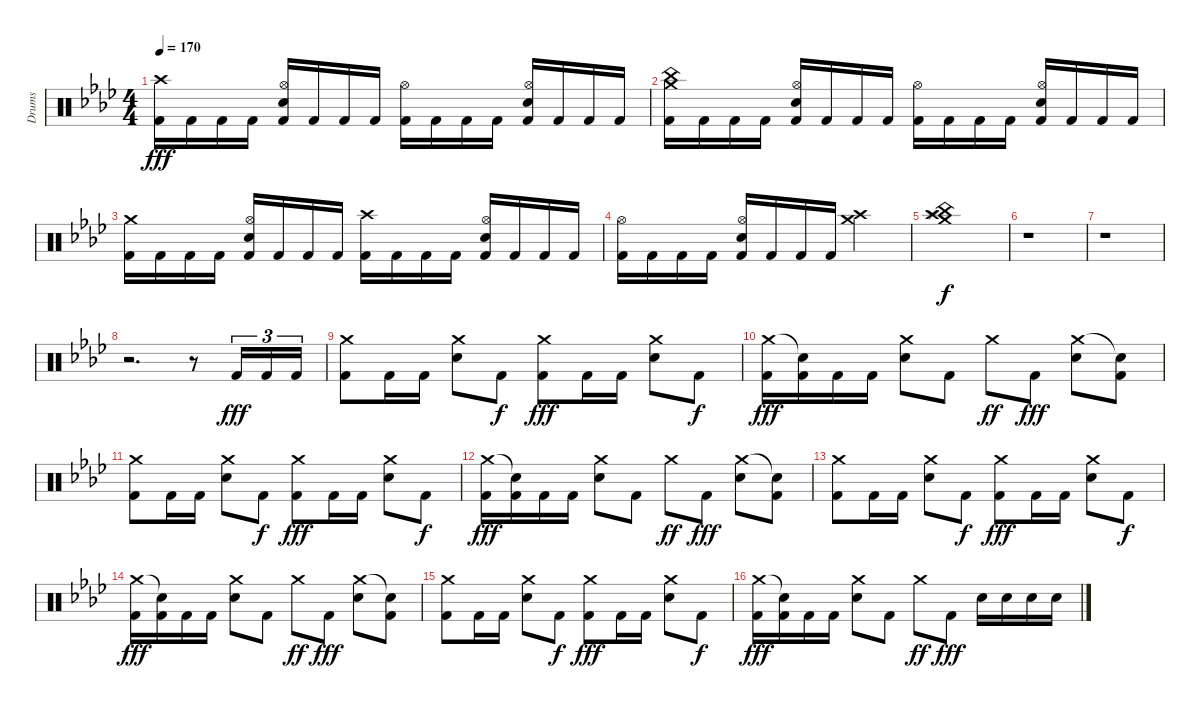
\track ("Drums" "Drums") {instrument percussion}
\staff {score}
\articulation defaults
\ts (4 4)
\tempo 170
\clef neutral
\ks fminor
("Crash high (hit)" "Kick (hit) 2").16{dy fff} "Kick (hit) 2".16 "Kick (hit) 2".16 "Kick (hit) 2".16 ("Hi-Hat (open)" "Snare (hit) 2" "Kick (hit) 2").16 "Kick (hit) 2".16 "Kick (hit) 2".16 "Kick (hit) 2".16 ("Hi-Hat (open)" "Kick (hit) 2").16 "Kick (hit) 2".16 "Kick (hit) 2".16 "Kick (hit) 2".16 ("Hi-Hat (open)" "Snare (hit) 2" "Kick (hit) 2").16 "Kick (hit) 2".16 "Kick (hit) 2".16 "Kick (hit) 2".16 |
("China (hit)" "Crash medium (hit)" "Kick (hit) 2").16 "Kick (hit) 2".16 "Kick (hit) 2".16 "Kick (hit) 2".16 ("Hi-Hat (open)" "Snare (hit) 2" "Kick (hit) 2").16 "Kick (hit) 2".16 "Kick (hit) 2".16 "Kick (hit) 2".16 ("Hi-Hat (open)" "Kick (hit) 2").16 "Kick (hit) 2".16 "Kick (hit) 2".16 "Kick (hit) 2".16 ("Hi-Hat (open)" "Snare (hit) 2" "Kick (hit) 2").16 "Kick (hit) 2".16 "Kick (hit) 2".16 "Kick (hit) 2".16 |
("Crash medium (hit)" "Kick (hit) 2").16 "Kick (hit) 2".16 "Kick (hit) 2".16 "Kick (hit) 2".16 ("Hi-Hat (open)" "Snare (hit) 2" "Kick (hit) 2").16 "Kick (hit) 2".16 "Kick (hit) 2".16 "Kick (hit) 2".16 ("Crash high (hit)" "Kick (hit) 2").16 "Kick (hit) 2".16 "Kick (hit) 2".16 "Kick (hit) 2".16 ("Hi-Hat (open)" "Snare (hit) 2" "Kick (hit) 2").16 "Kick (hit) 2".16 "Kick (hit) 2".16 "Kick (hit) 2".16 |
("Hi-Hat (open)" "Kick (hit) 2").16 "Kick (hit) 2".16 "Kick (hit) 2".16 "Kick (hit) 2".16 ("Hi-Hat (open)" "Snare (hit) 2" "Kick (hit) 2").16 "Kick (hit) 2".16 "Kick (hit) 2".16 "Kick (hit) 2".16 ("Crash medium (hit)" "Crash high (hit)").2 |
("China (hit)" "Crash medium (hit)" "Crash high (hit)" "Splash (hit)").1{dy f} |
r.1 |
r.1 |
r.2{d} r.8 "Kick (hit) 2".16{tu (3 2) dy fff} "Kick (hit) 2".16{tu (3 2)} "Kick (hit) 2".16{tu (3 2)} |
("Crash medium (hit)" "Kick (hit) 2").8 "Kick (hit) 2".16 "Kick (hit) 2".16 ("Crash medium (hit)" "Snare (hit) 2").8 "Kick (hit) 2".8{dy f} ("Crash medium (hit)" "Kick (hit) 2").8{dy fff} "Kick (hit) 2".16 "Kick (hit) 2".16 ("Crash medium (hit)" "Snare (hit) 2").8 "Kick (hit) 2".8{dy f} |
("Crash medium (hit)" "Kick (hit) 2").16{dy fff} ("Snare (hit)"{t} "Kick (hit) 2").16 "Kick (hit) 2".16 "Kick (hit) 2".16 ("Crash medium (hit)" "Snare (hit) 2").8 "Kick (hit) 2".8 "Crash medium (hit)".8{dy ff} "Kick (hit) 2".8{dy fff} ("Crash medium (hit)" "Snare (hit) 2").8 ("Snare (hit)"{t} "Kick (hit) 2").8 |
("Crash medium (hit)" "Kick (hit) 2").8 "Kick (hit) 2".16 "Kick (hit) 2".16 ("Crash medium (hit)" "Snare (hit) 2").8 "Kick (hit) 2".8{dy f} ("Crash medium (hit)" "Kick (hit) 2").8{dy fff} "Kick (hit) 2".16 "Kick (hit) 2".16 ("Crash medium (hit)" "Snare (hit) 2").8 "Kick (hit) 2".8{dy f} |
("Crash medium (hit)" "Kick (hit) 2").16{dy fff} ("Snare (hit)"{t} "Kick (hit) 2").16 "Kick (hit) 2".16 "Kick (hit) 2".16 ("Crash medium (hit)" "Snare (hit) 2").8 "Kick (hit) 2".8 "Crash medium (hit)".8{dy ff} "Kick (hit) 2".8{dy fff} ("Crash medium (hit)" "Snare (hit) 2").8 ("Snare (hit)"{t} "Kick (hit) 2").8 |
("Crash medium (hit)" "Kick (hit) 2").8 "Kick (hit) 2".16 "Kick (hit) 2".16 ("Crash medium (hit)" "Snare (hit) 2").8 "Kick (hit) 2".8{dy f} ("Crash medium (hit)" "Kick (hit) 2").8{dy fff} "Kick (hit) 2".16 "Kick (hit) 2".16 ("Crash medium (hit)" "Snare (hit) 2").8 "Kick (hit) 2".8{dy f} |
("Crash medium (hit)" "Kick (hit) 2").16{dy fff} ("Snare (hit)"{t} "Kick (hit) 2").16 "Kick (hit) 2".16 "Kick (hit) 2".16 ("Crash medium (hit)" "Snare (hit) 2").8 "Kick (hit) 2".8 "Crash medium (hit)".8{dy ff} "Kick (hit) 2".8{dy fff} ("Crash medium (hit)" "Snare (hit) 2").8 ("Snare (hit)"{t} "Kick (hit) 2").8 |
("Crash medium (hit)" "Kick (hit) 2").8 "Kick (hit) 2".16 "Kick (hit) 2".16 ("Crash medium (hit)" "Snare (hit) 2").8 "Kick (hit) 2".8{dy f} ("Crash medium (hit)" "Kick (hit) 2").8{dy fff} "Kick (hit) 2".16 "Kick (hit) 2".16 ("Crash medium (hit)" "Snare (hit) 2").8 "Kick (hit) 2".8{dy f} |
("Crash medium (hit)" "Kick (hit) 2").16{dy fff} ("Snare (hit)"{t} "Kick (hit) 2").16 "Kick (hit) 2".16 "Kick (hit) 2".16 ("Crash medium (hit)" "Snare (hit) 2").8 "Kick (hit) 2".8 "Crash medium (hit)".8{dy ff} "Kick (hit) 2".8{dy fff} "Snare (hit) 2".16 "Snare (hit) 2".16 "Snare (hit) 2".16 "Snare (hit) 2".16
